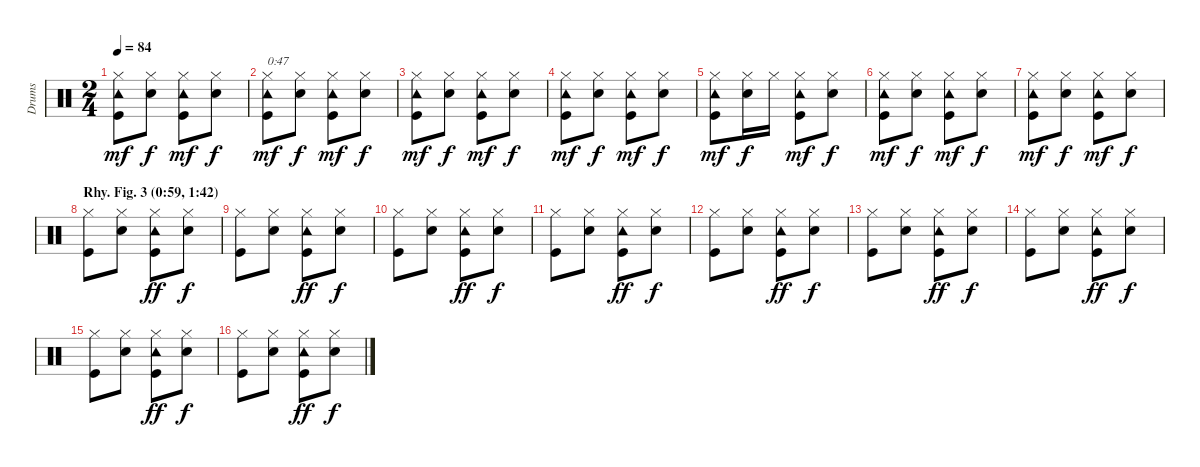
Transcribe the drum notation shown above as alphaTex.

\track ("Drums" "Drums") {instrument percussion}
\staff {score}
\articulation defaults
\ts (2 4)
\tempo 84
\clef neutral
\ks c
("Tambourine (hit)" "Hi-Hat (closed)" "Kick (hit)").8{dy mf} ("Hi-Hat (closed)" "Electric Snare (hit)").8{dy f} ("Tambourine (hit)" "Hi-Hat (closed)" "Kick (hit)").8{dy mf} ("Hi-Hat (closed)" "Electric Snare (hit)").8{dy f} |
("Tambourine (hit)" "Hi-Hat (closed)" "Kick (hit)").8{txt "0:47" dy mf} ("Hi-Hat (closed)" "Electric Snare (hit)").8{dy f} ("Tambourine (hit)" "Hi-Hat (closed)" "Kick (hit)").8{dy mf} ("Hi-Hat (closed)" "Electric Snare (hit)").8{dy f} |
("Tambourine (hit)" "Hi-Hat (closed)" "Kick (hit)").8{dy mf} ("Hi-Hat (closed)" "Electric Snare (hit)").8{dy f} ("Tambourine (hit)" "Hi-Hat (closed)" "Kick (hit)").8{dy mf} ("Hi-Hat (closed)" "Electric Snare (hit)").8{dy f} |
("Tambourine (hit)" "Hi-Hat (closed)" "Kick (hit)").8{dy mf} ("Hi-Hat (closed)" "Electric Snare (hit)").8{dy f} ("Tambourine (hit)" "Hi-Hat (closed)" "Kick (hit)").8{dy mf} ("Hi-Hat (closed)" "Electric Snare (hit)").8{dy f} |
("Tambourine (hit)" "Hi-Hat (closed)" "Kick (hit)").8{dy mf} ("Hi-Hat (closed)" "Electric Snare (hit)").16{dy f} "Hi-Hat (closed)".16 ("Tambourine (hit)" "Hi-Hat (closed)" "Kick (hit)").8{dy mf} ("Hi-Hat (closed)" "Electric Snare (hit)").8{dy f} |
("Tambourine (hit)" "Hi-Hat (closed)" "Kick (hit)").8{dy mf} ("Hi-Hat (closed)" "Electric Snare (hit)").8{dy f} ("Tambourine (hit)" "Hi-Hat (closed)" "Kick (hit)").8{dy mf} ("Hi-Hat (closed)" "Electric Snare (hit)").8{dy f} |
("Tambourine (hit)" "Hi-Hat (closed)" "Kick (hit)").8{dy mf} ("Hi-Hat (closed)" "Electric Snare (hit)").8{dy f} ("Tambourine (hit)" "Hi-Hat (closed)" "Kick (hit)").8{dy mf} ("Hi-Hat (closed)" "Electric Snare (hit)").8{dy f} |
\section ("" "Rhy. Fig. 3 (0:59, 1:42)")
("Hi-Hat (closed)" "Kick (hit)").8 ("Hi-Hat (closed)" "Electric Snare (hit)").8 ("Tambourine (hit)" "Hi-Hat (closed)" "Kick (hit)").8{dy ff} ("Hi-Hat (closed)" "Electric Snare (hit)").8{dy f} |
("Hi-Hat (closed)" "Kick (hit)").8 ("Hi-Hat (closed)" "Electric Snare (hit)").8 ("Tambourine (hit)" "Hi-Hat (closed)" "Kick (hit)").8{dy ff} ("Hi-Hat (closed)" "Electric Snare (hit)").8{dy f} |
("Hi-Hat (closed)" "Kick (hit)").8 ("Hi-Hat (closed)" "Electric Snare (hit)").8 ("Tambourine (hit)" "Hi-Hat (closed)" "Kick (hit)").8{dy ff} ("Hi-Hat (closed)" "Electric Snare (hit)").8{dy f} |
("Hi-Hat (closed)" "Kick (hit)").8 ("Hi-Hat (closed)" "Electric Snare (hit)").8 ("Tambourine (hit)" "Hi-Hat (closed)" "Kick (hit)").8{dy ff} ("Hi-Hat (closed)" "Electric Snare (hit)").8{dy f} |
("Hi-Hat (closed)" "Kick (hit)").8 ("Hi-Hat (closed)" "Electric Snare (hit)").8 ("Tambourine (hit)" "Hi-Hat (closed)" "Kick (hit)").8{dy ff} ("Hi-Hat (closed)" "Electric Snare (hit)").8{dy f} |
("Hi-Hat (closed)" "Kick (hit)").8 ("Hi-Hat (closed)" "Electric Snare (hit)").8 ("Tambourine (hit)" "Hi-Hat (closed)" "Kick (hit)").8{dy ff} ("Hi-Hat (closed)" "Electric Snare (hit)").8{dy f} |
("Hi-Hat (closed)" "Kick (hit)").8 ("Hi-Hat (closed)" "Electric Snare (hit)").8 ("Tambourine (hit)" "Hi-Hat (closed)" "Kick (hit)").8{dy ff} ("Hi-Hat (closed)" "Electric Snare (hit)").8{dy f} |
("Hi-Hat (closed)" "Kick (hit)").8 ("Hi-Hat (closed)" "Electric Snare (hit)").8 ("Tambourine (hit)" "Hi-Hat (closed)" "Kick (hit)").8{dy ff} ("Hi-Hat (closed)" "Electric Snare (hit)").8{dy f} |
("Hi-Hat (closed)" "Kick (hit)").8 ("Hi-Hat (closed)" "Electric Snare (hit)").8 ("Tambourine (hit)" "Hi-Hat (closed)" "Kick (hit)").8{dy ff} ("Hi-Hat (closed)" "Electric Snare (hit)").8{dy f}
